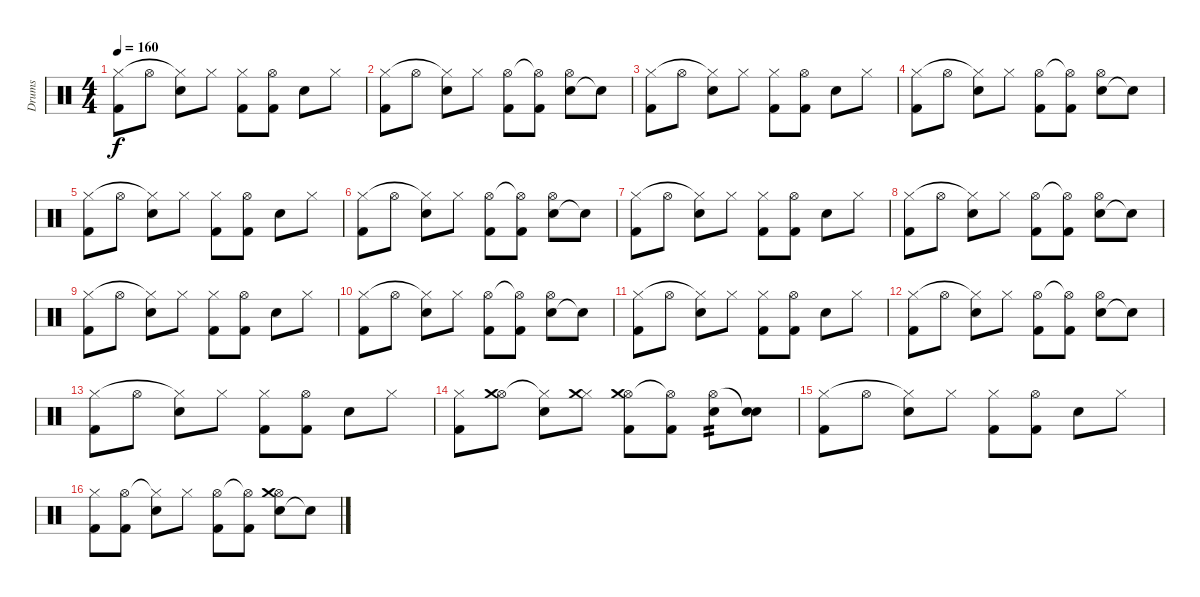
\track ("Drums" "Drums") {instrument percussion}
\staff {score}
\articulation defaults
\ts (4 4)
\tempo 160
\clef neutral
\ks c
("Kick (hit) 2" "Hi-Hat (closed)").8{dy f} "Hi-Hat (open)".8 ("Snare (hit) 2" "Hi-Hat (closed)"{t}).8 "Hi-Hat (closed)".8 ("Kick (hit) 2" "Hi-Hat (closed)").8 ("Kick (hit) 2" "Hi-Hat (open)").8 "Snare (hit) 2".8 "Hi-Hat (closed)".8 |
("Kick (hit) 2" "Hi-Hat (closed)").8 "Hi-Hat (open)".8 ("Snare (hit) 2" "Hi-Hat (closed)"{t}).8 "Hi-Hat (closed)".8 ("Kick (hit) 2" "Hi-Hat (open)").8 ("Kick (hit) 2" "Hi-Hat (open)"{t}).8 ("Snare (hit) 2" "Hi-Hat (open)").8 "Snare (hit)"{t}.8 |
("Kick (hit) 2" "Hi-Hat (closed)").8 "Hi-Hat (open)".8 ("Snare (hit) 2" "Hi-Hat (closed)"{t}).8 "Hi-Hat (closed)".8 ("Kick (hit) 2" "Hi-Hat (closed)").8 ("Kick (hit) 2" "Hi-Hat (open)").8 "Snare (hit) 2".8 "Hi-Hat (closed)".8 |
("Kick (hit) 2" "Hi-Hat (closed)").8 "Hi-Hat (open)".8 ("Snare (hit) 2" "Hi-Hat (closed)"{t}).8 "Hi-Hat (closed)".8 ("Kick (hit) 2" "Hi-Hat (open)").8 ("Kick (hit) 2" "Hi-Hat (open)"{t}).8 ("Snare (hit) 2" "Hi-Hat (open)").8 "Snare (hit)"{t}.8 |
("Kick (hit) 2" "Hi-Hat (closed)").8 "Hi-Hat (open)".8 ("Snare (hit) 2" "Hi-Hat (closed)"{t}).8 "Hi-Hat (closed)".8 ("Kick (hit) 2" "Hi-Hat (closed)").8 ("Kick (hit) 2" "Hi-Hat (open)").8 "Snare (hit) 2".8 "Hi-Hat (closed)".8 |
("Kick (hit) 2" "Hi-Hat (closed)").8 "Hi-Hat (open)".8 ("Snare (hit) 2" "Hi-Hat (closed)"{t}).8 "Hi-Hat (closed)".8 ("Kick (hit) 2" "Hi-Hat (open)").8 ("Kick (hit) 2" "Hi-Hat (open)"{t}).8 ("Snare (hit) 2" "Hi-Hat (open)").8 "Snare (hit)"{t}.8 |
("Kick (hit) 2" "Hi-Hat (closed)").8 "Hi-Hat (open)".8 ("Snare (hit) 2" "Hi-Hat (closed)"{t}).8 "Hi-Hat (closed)".8 ("Kick (hit) 2" "Hi-Hat (closed)").8 ("Kick (hit) 2" "Hi-Hat (open)").8 "Snare (hit) 2".8 "Hi-Hat (closed)".8 |
("Kick (hit) 2" "Hi-Hat (closed)").8 "Hi-Hat (open)".8 ("Snare (hit) 2" "Hi-Hat (closed)"{t}).8 "Hi-Hat (closed)".8 ("Kick (hit) 2" "Hi-Hat (open)").8 ("Kick (hit) 2" "Hi-Hat (open)"{t}).8 ("Snare (hit) 2" "Hi-Hat (open)").8 "Snare (hit)"{t}.8 |
("Kick (hit) 2" "Hi-Hat (closed)").8 "Hi-Hat (open)".8 ("Snare (hit) 2" "Hi-Hat (closed)"{t}).8 "Hi-Hat (closed)".8 ("Kick (hit) 2" "Hi-Hat (closed)").8 ("Kick (hit) 2" "Hi-Hat (open)").8 "Snare (hit) 2".8 "Hi-Hat (closed)".8 |
("Kick (hit) 2" "Hi-Hat (closed)").8 "Hi-Hat (open)".8 ("Snare (hit) 2" "Hi-Hat (closed)"{t}).8 "Hi-Hat (closed)".8 ("Kick (hit) 2" "Hi-Hat (open)").8 ("Kick (hit) 2" "Hi-Hat (open)"{t}).8 ("Snare (hit) 2" "Hi-Hat (open)").8 "Snare (hit)"{t}.8 |
("Kick (hit) 2" "Hi-Hat (closed)").8 "Hi-Hat (open)".8 ("Snare (hit) 2" "Hi-Hat (closed)"{t}).8 "Hi-Hat (closed)".8 ("Kick (hit) 2" "Hi-Hat (closed)").8 ("Kick (hit) 2" "Hi-Hat (open)").8 "Snare (hit) 2".8 "Hi-Hat (closed)".8 |
("Kick (hit) 2" "Hi-Hat (closed)").8 "Hi-Hat (open)".8 ("Snare (hit) 2" "Hi-Hat (closed)"{t}).8 "Hi-Hat (closed)".8 ("Kick (hit) 2" "Hi-Hat (open)").8 ("Kick (hit) 2" "Hi-Hat (open)"{t}).8 ("Snare (hit) 2" "Hi-Hat (open)").8 "Snare (hit)"{t}.8 |
("Kick (hit) 2" "Hi-Hat (closed)").8 "Hi-Hat (open)".8 ("Snare (hit) 2" "Hi-Hat (closed)"{t}).8 "Hi-Hat (closed)".8 ("Kick (hit) 2" "Hi-Hat (closed)").8 ("Kick (hit) 2" "Hi-Hat (open)").8 "Snare (hit) 2".8 "Hi-Hat (closed)".8 |
("Kick (hit) 2" "Hi-Hat (closed)").8 ("Hi-Hat (open)" "Crash medium (hit)").8 ("Snare (hit) 2" "Hi-Hat (closed)"{t}).8 ("Hi-Hat (closed)" "Crash medium (hit)").8 ("Kick (hit) 2" "Hi-Hat (open)" "Crash medium (hit)").8 ("Kick (hit) 2" "Hi-Hat (open)"{t}).8 ("Snare (hit) 2" "Hi-Hat (open)").8{tp 2} ("Snare (hit) 2" "Snare (hit)"{t}).8 |
("Kick (hit) 2" "Hi-Hat (closed)").8 "Hi-Hat (open)".8 ("Snare (hit) 2" "Hi-Hat (closed)"{t}).8 "Hi-Hat (closed)".8 ("Kick (hit) 2" "Hi-Hat (closed)").8 ("Kick (hit) 2" "Hi-Hat (open)").8 "Snare (hit) 2".8 "Hi-Hat (closed)".8 |
("Kick (hit) 2" "Hi-Hat (closed)").8 ("Kick (hit) 2" "Hi-Hat (open)").8 ("Snare (hit) 2" "Hi-Hat (closed)"{t}).8 "Hi-Hat (closed)".8 ("Kick (hit) 2" "Hi-Hat (open)").8 ("Kick (hit) 2" "Hi-Hat (open)"{t}).8 ("Snare (hit) 2" "Hi-Hat (open)" "Crash medium (hit)").8 "Snare (hit)"{t}.8
